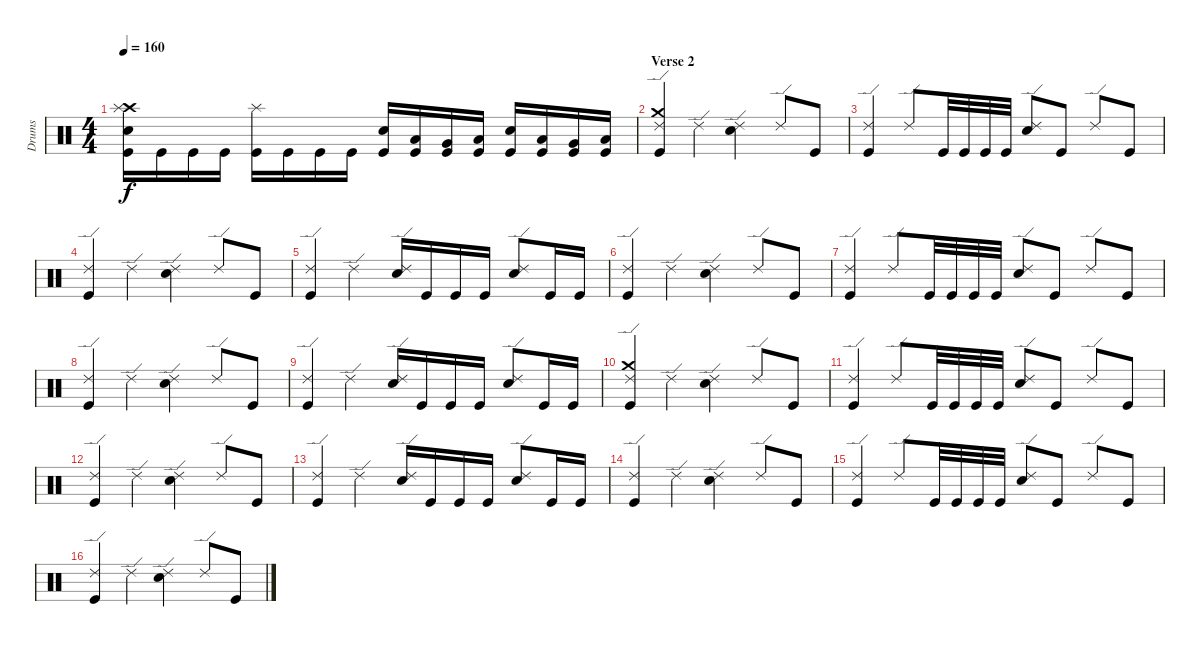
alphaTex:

\track ("Drums" "Drums") {instrument percussion}
\staff {score}
\articulation defaults
\ts (4 4)
\tempo 160
\clef neutral
\ks c
("Crash high (hit)" "Splash (hit)" "Electric Snare (hit)" "Kick (hit)").16{dy f} "Kick (hit)".16 "Kick (hit)".16 "Kick (hit)".16 ("Splash (hit)" "Kick (hit)").16 "Kick (hit)".16 "Kick (hit)".16 "Kick (hit)".16 ("Electric Snare (hit)" "Kick (hit)").16 ("Low Tom (hit)" "Kick (hit)").16 ("Very Low Tom (hit)" "Kick (hit)").16 ("Low Floor Tom (hit)" "Kick (hit)").16 ("Electric Snare (hit)" "Kick (hit)").16 ("Low Tom (hit)" "Kick (hit)").16 ("Very Low Tom (hit)" "Kick (hit)").16 ("Low Floor Tom (hit)" "Kick (hit)").16 |
\section ("" "Verse 2")
("Crash medium (hit)" "Ride (edge) 2" "Kick (hit)").4 "Ride (edge) 2".4 ("Ride (edge) 2" "Electric Snare (hit)").4 "Ride (edge) 2".8 "Kick (hit)".8 |
("Ride (edge) 2" "Kick (hit)").4 "Ride (edge) 2".8 "Kick (hit)".32 "Kick (hit)".32 "Kick (hit)".32 "Kick (hit)".32 ("Ride (edge) 2" "Electric Snare (hit)").8 "Kick (hit)".8 "Ride (edge) 2".8 "Kick (hit)".8 |
("Ride (edge) 2" "Kick (hit)").4 "Ride (edge) 2".4 ("Ride (edge) 2" "Electric Snare (hit)").4 "Ride (edge) 2".8 "Kick (hit)".8 |
("Ride (edge) 2" "Kick (hit)").4 "Ride (edge) 2".4 ("Ride (edge) 2" "Electric Snare (hit)").16 "Kick (hit)".16 "Kick (hit)".16 "Kick (hit)".16 ("Ride (edge) 2" "Electric Snare (hit)").8 "Kick (hit)".16 "Kick (hit)".16 |
("Ride (edge) 2" "Kick (hit)").4 "Ride (edge) 2".4 ("Ride (edge) 2" "Electric Snare (hit)").4 "Ride (edge) 2".8 "Kick (hit)".8 |
("Ride (edge) 2" "Kick (hit)").4 "Ride (edge) 2".8 "Kick (hit)".32 "Kick (hit)".32 "Kick (hit)".32 "Kick (hit)".32 ("Ride (edge) 2" "Electric Snare (hit)").8 "Kick (hit)".8 "Ride (edge) 2".8 "Kick (hit)".8 |
("Ride (edge) 2" "Kick (hit)").4 "Ride (edge) 2".4 ("Ride (edge) 2" "Electric Snare (hit)").4 "Ride (edge) 2".8 "Kick (hit)".8 |
("Ride (edge) 2" "Kick (hit)").4 "Ride (edge) 2".4 ("Ride (edge) 2" "Electric Snare (hit)").16 "Kick (hit)".16 "Kick (hit)".16 "Kick (hit)".16 ("Ride (edge) 2" "Electric Snare (hit)").8 "Kick (hit)".16 "Kick (hit)".16 |
("Crash medium (hit)" "Ride (edge) 2" "Kick (hit)").4 "Ride (edge) 2".4 ("Ride (edge) 2" "Electric Snare (hit)").4 "Ride (edge) 2".8 "Kick (hit)".8 |
("Ride (edge) 2" "Kick (hit)").4 "Ride (edge) 2".8 "Kick (hit)".32 "Kick (hit)".32 "Kick (hit)".32 "Kick (hit)".32 ("Ride (edge) 2" "Electric Snare (hit)").8 "Kick (hit)".8 "Ride (edge) 2".8 "Kick (hit)".8 |
("Ride (edge) 2" "Kick (hit)").4 "Ride (edge) 2".4 ("Ride (edge) 2" "Electric Snare (hit)").4 "Ride (edge) 2".8 "Kick (hit)".8 |
("Ride (edge) 2" "Kick (hit)").4 "Ride (edge) 2".4 ("Ride (edge) 2" "Electric Snare (hit)").16 "Kick (hit)".16 "Kick (hit)".16 "Kick (hit)".16 ("Ride (edge) 2" "Electric Snare (hit)").8 "Kick (hit)".16 "Kick (hit)".16 |
("Ride (edge) 2" "Kick (hit)").4 "Ride (edge) 2".4 ("Ride (edge) 2" "Electric Snare (hit)").4 "Ride (edge) 2".8 "Kick (hit)".8 |
("Ride (edge) 2" "Kick (hit)").4 "Ride (edge) 2".8 "Kick (hit)".32 "Kick (hit)".32 "Kick (hit)".32 "Kick (hit)".32 ("Ride (edge) 2" "Electric Snare (hit)").8 "Kick (hit)".8 "Ride (edge) 2".8 "Kick (hit)".8 |
("Ride (edge) 2" "Kick (hit)").4 "Ride (edge) 2".4 ("Ride (edge) 2" "Electric Snare (hit)").4 "Ride (edge) 2".8 "Kick (hit)".8
